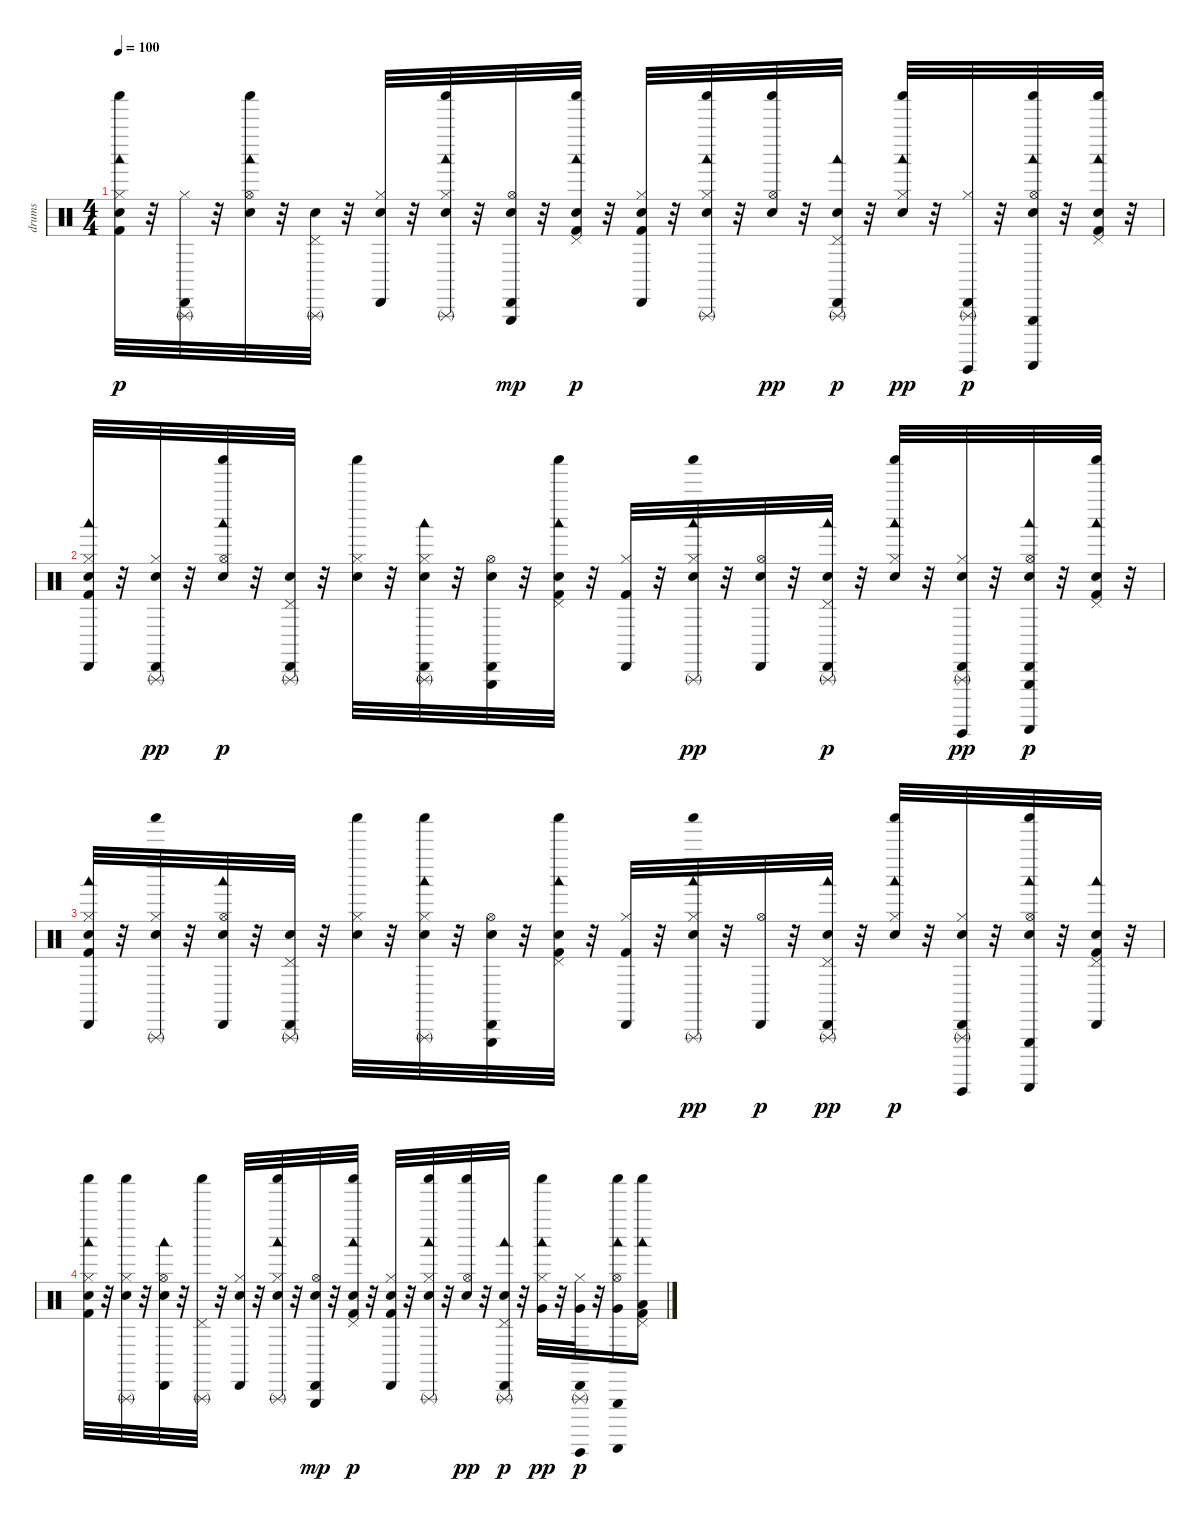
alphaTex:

\track ("drums" "drums") {instrument percussion}
\staff {score}
\articulation defaults
\ts (4 4)
\tempo 100
\clef neutral
\ks c
("Kick (hit) 2" "Snare (hit) 2" "Hi-Hat (closed)" "Woodblock low (hit)" "Shaker (hit)").32{dy p} r.32 ("Hi-Hat (closed)" "Cabasa (hit)" "Triangle (rnute)").32 r.32 ("Snare (hit) 2" "Hi-Hat (open)" "Woodblock low (hit)" "Shaker (hit)").32 r.32 ("Snare (hit) 2" "Pedal Hi-Hat (hit)" "Triangle (rnute)").32 r.32 ("Snare (hit) 2" "Hi-Hat (closed)" "Cabasa (hit)").32 r.32 ("Snare (hit) 2" "Hi-Hat (closed)" "Woodblock low (hit)" "Shaker (hit)" "Triangle (rnute)").32 r.32 ("Snare (hit) 2" "Hi-Hat (open)" "Cabasa (hit)" "Triangle (hit)").32{dy mp} r.32 ("Kick (hit) 2" "Snare (hit) 2" "Pedal Hi-Hat (hit)" "Woodblock low (hit)" "Shaker (hit)").32{dy p} r.32 ("Kick (hit) 2" "Snare (hit) 2" "Hi-Hat (closed)" "Cabasa (hit)").32 r.32 ("Snare (hit) 2" "Hi-Hat (closed)" "Woodblock low (hit)" "Shaker (hit)" "Triangle (rnute)").32 r.32 ("Snare (hit) 2" "Hi-Hat (open)" "Shaker (hit)").32{dy pp} r.32 ("Snare (hit) 2" "Pedal Hi-Hat (hit)" "Woodblock low (hit)" "Cabasa (hit)" "Triangle (rnute)").32{dy p} r.32 ("Snare (hit) 2" "Hi-Hat (closed)" "Woodblock low (hit)" "Shaker (hit)").32{dy pp} r.32 ("Hi-Hat (closed)" "Cabasa (hit)" "Triangle (rnute)" "Guiro (hit)").32{dy p} r.32 ("Snare (hit) 2" "Hi-Hat (open)" "Woodblock low (hit)" "Shaker (hit)" "Guiro (scrap-return)" "Triangle (hit)").32 r.32 ("Kick (hit) 2" "Snare (hit) 2" "Pedal Hi-Hat (hit)" "Woodblock low (hit)" "Shaker (hit)").32 r.32 |
("Kick (hit) 2" "Snare (hit) 2" "Hi-Hat (closed)" "Woodblock low (hit)" "Cabasa (hit)").32 r.32 ("Snare (hit) 2" "Hi-Hat (closed)" "Cabasa (hit)" "Triangle (rnute)").32{dy pp} r.32 ("Snare (hit) 2" "Hi-Hat (open)" "Woodblock low (hit)" "Shaker (hit)").32{dy p} r.32 ("Snare (hit) 2" "Pedal Hi-Hat (hit)" "Cabasa (hit)" "Triangle (rnute)").32 r.32 ("Snare (hit) 2" "Hi-Hat (closed)" "Shaker (hit)").32 r.32 ("Snare (hit) 2" "Hi-Hat (closed)" "Woodblock low (hit)" "Cabasa (hit)" "Triangle (rnute)").32 r.32 ("Snare (hit) 2" "Hi-Hat (open)" "Cabasa (hit)" "Triangle (hit)").32 r.32 ("Kick (hit) 2" "Snare (hit) 2" "Pedal Hi-Hat (hit)" "Woodblock low (hit)" "Shaker (hit)").32 r.32 ("Kick (hit) 2" "Hi-Hat (closed)" "Cabasa (hit)").32 r.32 ("Snare (hit) 2" "Hi-Hat (closed)" "Woodblock low (hit)" "Shaker (hit)" "Triangle (rnute)").32{dy pp} r.32 ("Snare (hit) 2" "Hi-Hat (open)" "Cabasa (hit)").32 r.32 ("Snare (hit) 2" "Pedal Hi-Hat (hit)" "Woodblock low (hit)" "Cabasa (hit)" "Triangle (rnute)").32{dy p} r.32 ("Snare (hit) 2" "Hi-Hat (closed)" "Woodblock low (hit)" "Shaker (hit)").32 r.32 ("Snare (hit) 2" "Hi-Hat (closed)" "Cabasa (hit)" "Guiro (hit)" "Triangle (rnute)").32{dy pp} r.32 ("Snare (hit) 2" "Hi-Hat (open)" "Woodblock low (hit)" "Cabasa (hit)" "Guiro (scrap-return)" "Triangle (hit)").32{dy p} r.32 ("Kick (hit) 2" "Snare (hit) 2" "Pedal Hi-Hat (hit)" "Woodblock low (hit)" "Shaker (hit)").32 r.32 |
("Kick (hit) 2" "Snare (hit) 2" "Hi-Hat (closed)" "Woodblock low (hit)" "Cabasa (hit)").32 r.32 ("Snare (hit) 2" "Hi-Hat (closed)" "Shaker (hit)" "Triangle (rnute)").32 r.32 ("Snare (hit) 2" "Hi-Hat (open)" "Woodblock low (hit)" "Cabasa (hit)").32 r.32 ("Snare (hit) 2" "Pedal Hi-Hat (hit)" "Cabasa (hit)" "Triangle (rnute)").32 r.32 ("Snare (hit) 2" "Hi-Hat (closed)" "Shaker (hit)").32 r.32 ("Snare (hit) 2" "Hi-Hat (closed)" "Woodblock low (hit)" "Shaker (hit)" "Triangle (rnute)").32 r.32 ("Snare (hit) 2" "Hi-Hat (open)" "Cabasa (hit)" "Triangle (hit)").32 r.32 ("Kick (hit) 2" "Snare (hit) 2" "Pedal Hi-Hat (hit)" "Woodblock low (hit)" "Shaker (hit)").32 r.32 ("Kick (hit) 2" "Hi-Hat (closed)" "Cabasa (hit)").32 r.32 ("Snare (hit) 2" "Hi-Hat (closed)" "Woodblock low (hit)" "Shaker (hit)" "Triangle (rnute)").32{dy pp} r.32 ("Hi-Hat (open)" "Cabasa (hit)").32{dy p} r.32 ("Snare (hit) 2" "Pedal Hi-Hat (hit)" "Woodblock low (hit)" "Cabasa (hit)" "Triangle (rnute)").32{dy pp} r.32 ("Snare (hit) 2" "Hi-Hat (closed)" "Woodblock low (hit)" "Shaker (hit)").32{dy p} r.32 ("Snare (hit) 2" "Hi-Hat (closed)" "Cabasa (hit)" "Triangle (rnute)" "Guiro (hit)").32 r.32 ("Snare (hit) 2" "Hi-Hat (open)" "Woodblock low (hit)" "Shaker (hit)" "Guiro (scrap-return)" "Triangle (hit)").32 r.32 ("Kick (hit) 2" "Snare (hit) 2" "Pedal Hi-Hat (hit)" "Woodblock low (hit)" "Cabasa (hit)").32 r.32 |
("Kick (hit) 2" "Snare (hit) 2" "Hi-Hat (closed)" "Woodblock low (hit)" "Shaker (hit)").32 r.32 ("Snare (hit) 2" "Hi-Hat (closed)" "Shaker (hit)" "Triangle (rnute)").32 r.32 ("Snare (hit) 2" "Hi-Hat (open)" "Woodblock low (hit)" "Cabasa (hit)").32 r.32 ("Pedal Hi-Hat (hit)" "Shaker (hit)" "Triangle (rnute)").32 r.32 ("Snare (hit) 2" "Hi-Hat (closed)" "Cabasa (hit)").32 r.32 ("Snare (hit) 2" "Hi-Hat (closed)" "Woodblock low (hit)" "Shaker (hit)" "Triangle (rnute)").32 r.32 ("Snare (hit) 2" "Hi-Hat (open)" "Cabasa (hit)" "Triangle (hit)").32{dy mp} r.32 ("Kick (hit) 2" "Snare (hit) 2" "Pedal Hi-Hat (hit)" "Woodblock low (hit)" "Shaker (hit)").32{dy p} r.32 ("Kick (hit) 2" "Snare (hit) 2" "Hi-Hat (closed)" "Cabasa (hit)").32 r.32 ("Snare (hit) 2" "Hi-Hat (closed)" "Woodblock low (hit)" "Shaker (hit)" "Triangle (rnute)").32 r.32 ("Snare (hit) 2" "Hi-Hat (open)" "Shaker (hit)").32{dy pp} r.32 ("Snare (hit) 2" "Pedal Hi-Hat (hit)" "Woodblock low (hit)" "Cabasa (hit)" "Triangle (rnute)").32{dy p} r.32 ("Very Low Tom (hit)" "Hi-Hat (closed)" "Woodblock low (hit)" "Shaker (hit)").32{dy pp} r.32 ("Hi-Hat (closed)" "Very Low Tom (hit)" "Cabasa (hit)" "Triangle (rnute)" "Guiro (hit)").32{dy p} r.32 ("Very Low Tom (hit)" "Hi-Hat (open)" "Woodblock low (hit)" "Shaker (hit)" "Guiro (scrap-return)" "Triangle (hit)").16 ("Kick (hit) 2" "Low Floor Tom (hit)" "Pedal Hi-Hat (hit)" "Woodblock low (hit)" "Shaker (hit)").16
